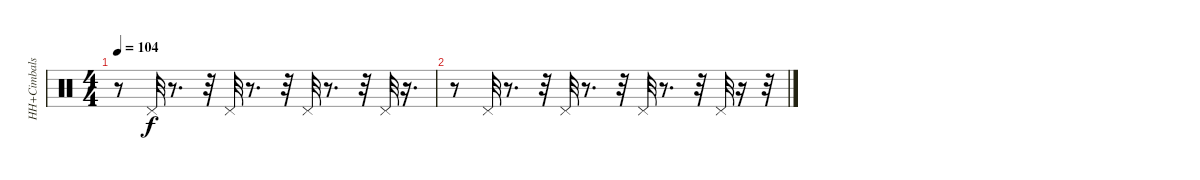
\track ("HH+Cimbals" "HH+Cimbals") {instrument percussion}
\staff {score}
\articulation defaults
\ts (4 4)
\tempo 104
\clef neutral
\ks c
r.8{dy f} "Pedal Hi-Hat (hit)".32 r.8{d} r.32 "Pedal Hi-Hat (hit)".32 r.8{d} r.32 "Pedal Hi-Hat (hit)".32 r.8{d} r.32 "Pedal Hi-Hat (hit)".32 r.16{d} |
r.8 "Pedal Hi-Hat (hit)".32 r.8{d} r.32 "Pedal Hi-Hat (hit)".32 r.8{d} r.32 "Pedal Hi-Hat (hit)".32 r.8{d} r.32 "Pedal Hi-Hat (hit)".32 r.16 r.32
